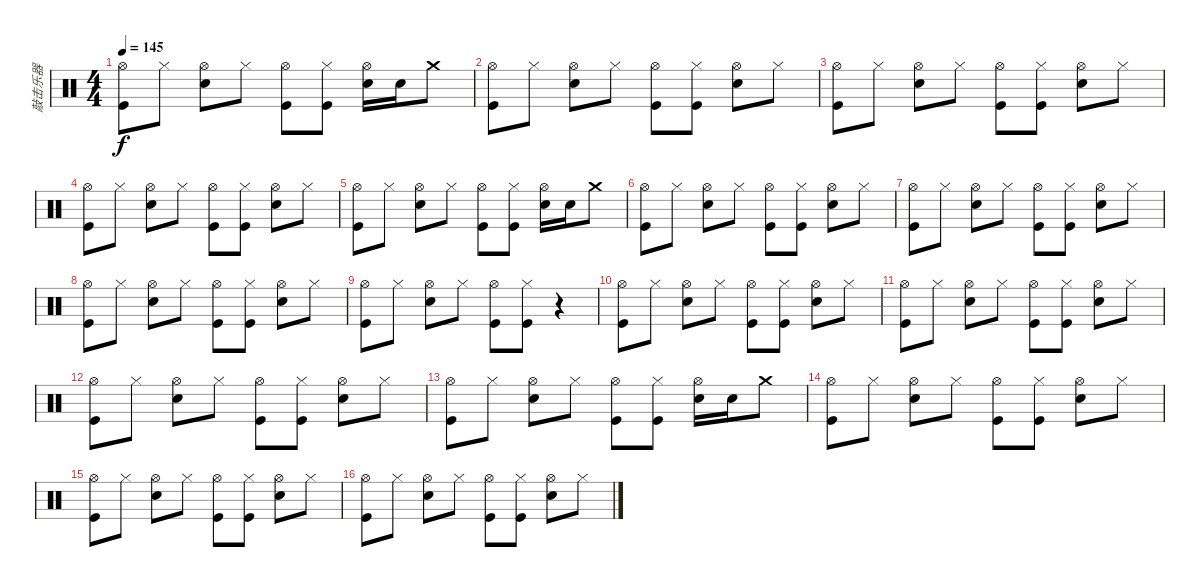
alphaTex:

\track ("敲击乐器" "敲击乐器") {instrument percussion}
\staff {score}
\articulation defaults
\ts (4 4)
\tempo 145
\clef neutral
\ks c
("Hi-Hat (open)" "Kick (hit)").8{dy f} "Hi-Hat (closed)".8 ("Hi-Hat (open)" "Snare (hit) 2").8 "Hi-Hat (closed)".8 ("Hi-Hat (open)" "Kick (hit)").8 ("Hi-Hat (closed)" "Kick (hit)").8 ("Hi-Hat (open)" "Snare (hit) 2").16 "Snare (hit) 2".16 "Crash medium (hit)".8 |
("Hi-Hat (open)" "Kick (hit)").8 "Hi-Hat (closed)".8 ("Hi-Hat (open)" "Snare (hit) 2").8 "Hi-Hat (closed)".8 ("Hi-Hat (open)" "Kick (hit)").8 ("Hi-Hat (closed)" "Kick (hit)").8 ("Hi-Hat (open)" "Snare (hit) 2").8 "Hi-Hat (closed)".8 |
("Hi-Hat (open)" "Kick (hit)").8 "Hi-Hat (closed)".8 ("Hi-Hat (open)" "Snare (hit) 2").8 "Hi-Hat (closed)".8 ("Hi-Hat (open)" "Kick (hit)").8 ("Hi-Hat (closed)" "Kick (hit)").8 ("Hi-Hat (open)" "Snare (hit) 2").8 "Hi-Hat (closed)".8 |
("Hi-Hat (open)" "Kick (hit)").8 "Hi-Hat (closed)".8 ("Hi-Hat (open)" "Snare (hit) 2").8 "Hi-Hat (closed)".8 ("Hi-Hat (open)" "Kick (hit)").8 ("Hi-Hat (closed)" "Kick (hit)").8 ("Hi-Hat (open)" "Snare (hit) 2").8 "Hi-Hat (closed)".8 |
("Hi-Hat (open)" "Kick (hit)").8 "Hi-Hat (closed)".8 ("Hi-Hat (open)" "Snare (hit) 2").8 "Hi-Hat (closed)".8 ("Hi-Hat (open)" "Kick (hit)").8 ("Hi-Hat (closed)" "Kick (hit)").8 ("Hi-Hat (open)" "Snare (hit) 2").16 "Snare (hit) 2".16 "Crash medium (hit)".8 |
("Hi-Hat (open)" "Kick (hit)").8 "Hi-Hat (closed)".8 ("Hi-Hat (open)" "Snare (hit) 2").8 "Hi-Hat (closed)".8 ("Hi-Hat (open)" "Kick (hit)").8 ("Hi-Hat (closed)" "Kick (hit)").8 ("Hi-Hat (open)" "Snare (hit) 2").8 "Hi-Hat (closed)".8 |
("Hi-Hat (open)" "Kick (hit)").8 "Hi-Hat (closed)".8 ("Hi-Hat (open)" "Snare (hit) 2").8 "Hi-Hat (closed)".8 ("Hi-Hat (open)" "Kick (hit)").8 ("Hi-Hat (closed)" "Kick (hit)").8 ("Hi-Hat (open)" "Snare (hit) 2").8 "Hi-Hat (closed)".8 |
("Hi-Hat (open)" "Kick (hit)").8 "Hi-Hat (closed)".8 ("Hi-Hat (open)" "Snare (hit) 2").8 "Hi-Hat (closed)".8 ("Hi-Hat (open)" "Kick (hit)").8 ("Hi-Hat (closed)" "Kick (hit)").8 ("Hi-Hat (open)" "Snare (hit) 2").8 "Hi-Hat (closed)".8 |
("Hi-Hat (open)" "Kick (hit)").8 "Hi-Hat (closed)".8 ("Hi-Hat (open)" "Snare (hit) 2").8 "Hi-Hat (closed)".8 ("Hi-Hat (open)" "Kick (hit)").8 ("Hi-Hat (closed)" "Kick (hit)").8 r.4 |
("Hi-Hat (open)" "Kick (hit)").8 "Hi-Hat (closed)".8 ("Hi-Hat (open)" "Snare (hit) 2").8 "Hi-Hat (closed)".8 ("Hi-Hat (open)" "Kick (hit)").8 ("Hi-Hat (closed)" "Kick (hit)").8 ("Hi-Hat (open)" "Snare (hit) 2").8 "Hi-Hat (closed)".8 |
("Hi-Hat (open)" "Kick (hit)").8 "Hi-Hat (closed)".8 ("Hi-Hat (open)" "Snare (hit) 2").8 "Hi-Hat (closed)".8 ("Hi-Hat (open)" "Kick (hit)").8 ("Hi-Hat (closed)" "Kick (hit)").8 ("Hi-Hat (open)" "Snare (hit) 2").8 "Hi-Hat (closed)".8 |
("Hi-Hat (open)" "Kick (hit)").8 "Hi-Hat (closed)".8 ("Hi-Hat (open)" "Snare (hit) 2").8 "Hi-Hat (closed)".8 ("Hi-Hat (open)" "Kick (hit)").8 ("Hi-Hat (closed)" "Kick (hit)").8 ("Hi-Hat (open)" "Snare (hit) 2").8 "Hi-Hat (closed)".8 |
("Hi-Hat (open)" "Kick (hit)").8 "Hi-Hat (closed)".8 ("Hi-Hat (open)" "Snare (hit) 2").8 "Hi-Hat (closed)".8 ("Hi-Hat (open)" "Kick (hit)").8 ("Hi-Hat (closed)" "Kick (hit)").8 ("Hi-Hat (open)" "Snare (hit) 2").16 "Snare (hit) 2".16 "Crash medium (hit)".8 |
("Hi-Hat (open)" "Kick (hit)").8 "Hi-Hat (closed)".8 ("Hi-Hat (open)" "Snare (hit) 2").8 "Hi-Hat (closed)".8 ("Hi-Hat (open)" "Kick (hit)").8 ("Hi-Hat (closed)" "Kick (hit)").8 ("Hi-Hat (open)" "Snare (hit) 2").8 "Hi-Hat (closed)".8 |
("Hi-Hat (open)" "Kick (hit)").8 "Hi-Hat (closed)".8 ("Hi-Hat (open)" "Snare (hit) 2").8 "Hi-Hat (closed)".8 ("Hi-Hat (open)" "Kick (hit)").8 ("Hi-Hat (closed)" "Kick (hit)").8 ("Hi-Hat (open)" "Snare (hit) 2").8 "Hi-Hat (closed)".8 |
("Hi-Hat (open)" "Kick (hit)").8 "Hi-Hat (closed)".8 ("Hi-Hat (open)" "Snare (hit) 2").8 "Hi-Hat (closed)".8 ("Hi-Hat (open)" "Kick (hit)").8 ("Hi-Hat (closed)" "Kick (hit)").8 ("Hi-Hat (open)" "Snare (hit) 2").8 "Hi-Hat (closed)".8
